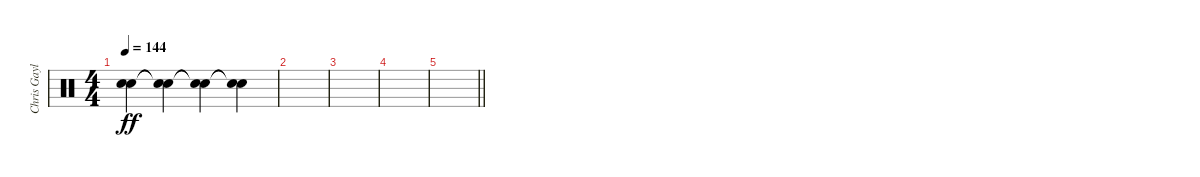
\track ("Chris Gaylor" "Chris Gayl") {instrument percussion}
\staff {score}
\articulation defaults
\ts (4 4)
\tempo 144
\clef neutral
\ks c
("Snare (hit)"{t} "Snare (hit)"{t}).4{dy ff} ("Snare (hit)"{t} "Snare (hit)"{t}).4 ("Snare (hit)"{t} "Snare (hit)"{t}).4 ("Snare (hit)"{t} "Snare (hit)"{t}).4 |
|
|
|
\barLineRight lightlight
